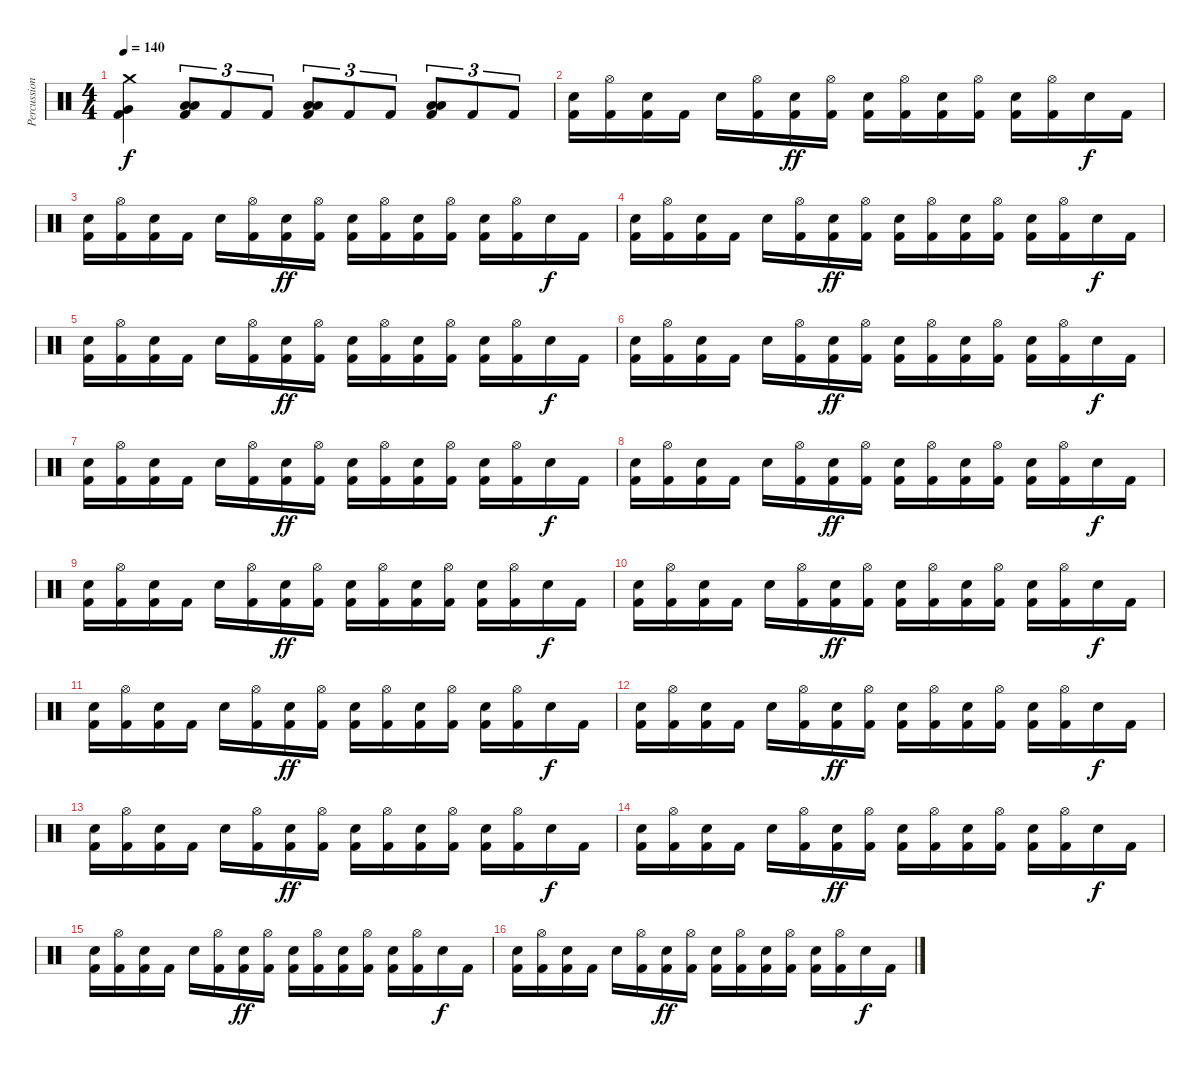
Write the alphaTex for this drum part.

\track ("Percussion" "Percussion") {instrument percussion}
\staff {score}
\articulation defaults
\ts (4 4)
\tempo 140
\clef neutral
\ks c
("Crash medium (hit)" "Very Low Tom (hit)" "Kick (hit) 2").4{dy f} ("Low Tom (hit)" "Low Tom (hit)" "Kick (hit) 2").8{tu (3 2)} "Kick (hit) 2".8{tu (3 2)} "Kick (hit) 2".8{tu (3 2)} ("Low Tom (hit)" "Low Tom (hit)" "Kick (hit) 2").8{tu (3 2)} "Kick (hit) 2".8{tu (3 2)} "Kick (hit) 2".8{tu (3 2)} ("Low Tom (hit)" "Low Tom (hit)" "Kick (hit) 2").8{tu (3 2)} "Kick (hit) 2".8{tu (3 2)} "Kick (hit) 2".8{tu (3 2)} |
("Electric Snare (hit)" "Kick (hit) 2").16 ("Hi-Hat (open)" "Kick (hit) 2").16 ("Electric Snare (hit)" "Kick (hit) 2").16 "Kick (hit) 2".16 "Electric Snare (hit)".16 ("Hi-Hat (open)" "Kick (hit) 2").16 ("Electric Snare (hit)" "Kick (hit) 2").16{dy ff} ("Hi-Hat (open)" "Kick (hit) 2").16 ("Electric Snare (hit)" "Kick (hit) 2").16 ("Hi-Hat (open)" "Kick (hit) 2").16 ("Electric Snare (hit)" "Kick (hit) 2").16 ("Hi-Hat (open)" "Kick (hit) 2").16 ("Electric Snare (hit)" "Kick (hit) 2").16 ("Hi-Hat (open)" "Kick (hit) 2").16 "Electric Snare (hit)".16{dy f} "Kick (hit) 2".16 |
("Electric Snare (hit)" "Kick (hit) 2").16 ("Hi-Hat (open)" "Kick (hit) 2").16 ("Electric Snare (hit)" "Kick (hit) 2").16 "Kick (hit) 2".16 "Electric Snare (hit)".16 ("Hi-Hat (open)" "Kick (hit) 2").16 ("Electric Snare (hit)" "Kick (hit) 2").16{dy ff} ("Hi-Hat (open)" "Kick (hit) 2").16 ("Electric Snare (hit)" "Kick (hit) 2").16 ("Hi-Hat (open)" "Kick (hit) 2").16 ("Electric Snare (hit)" "Kick (hit) 2").16 ("Hi-Hat (open)" "Kick (hit) 2").16 ("Electric Snare (hit)" "Kick (hit) 2").16 ("Hi-Hat (open)" "Kick (hit) 2").16 "Electric Snare (hit)".16{dy f} "Kick (hit) 2".16 |
("Electric Snare (hit)" "Kick (hit) 2").16 ("Hi-Hat (open)" "Kick (hit) 2").16 ("Electric Snare (hit)" "Kick (hit) 2").16 "Kick (hit) 2".16 "Electric Snare (hit)".16 ("Hi-Hat (open)" "Kick (hit) 2").16 ("Electric Snare (hit)" "Kick (hit) 2").16{dy ff} ("Hi-Hat (open)" "Kick (hit) 2").16 ("Electric Snare (hit)" "Kick (hit) 2").16 ("Hi-Hat (open)" "Kick (hit) 2").16 ("Electric Snare (hit)" "Kick (hit) 2").16 ("Hi-Hat (open)" "Kick (hit) 2").16 ("Electric Snare (hit)" "Kick (hit) 2").16 ("Hi-Hat (open)" "Kick (hit) 2").16 "Electric Snare (hit)".16{dy f} "Kick (hit) 2".16 |
("Electric Snare (hit)" "Kick (hit) 2").16 ("Hi-Hat (open)" "Kick (hit) 2").16 ("Electric Snare (hit)" "Kick (hit) 2").16 "Kick (hit) 2".16 "Electric Snare (hit)".16 ("Hi-Hat (open)" "Kick (hit) 2").16 ("Electric Snare (hit)" "Kick (hit) 2").16{dy ff} ("Hi-Hat (open)" "Kick (hit) 2").16 ("Electric Snare (hit)" "Kick (hit) 2").16 ("Hi-Hat (open)" "Kick (hit) 2").16 ("Electric Snare (hit)" "Kick (hit) 2").16 ("Hi-Hat (open)" "Kick (hit) 2").16 ("Electric Snare (hit)" "Kick (hit) 2").16 ("Hi-Hat (open)" "Kick (hit) 2").16 "Electric Snare (hit)".16{dy f} "Kick (hit) 2".16 |
("Electric Snare (hit)" "Kick (hit) 2").16 ("Hi-Hat (open)" "Kick (hit) 2").16 ("Electric Snare (hit)" "Kick (hit) 2").16 "Kick (hit) 2".16 "Electric Snare (hit)".16 ("Hi-Hat (open)" "Kick (hit) 2").16 ("Electric Snare (hit)" "Kick (hit) 2").16{dy ff} ("Hi-Hat (open)" "Kick (hit) 2").16 ("Electric Snare (hit)" "Kick (hit) 2").16 ("Hi-Hat (open)" "Kick (hit) 2").16 ("Electric Snare (hit)" "Kick (hit) 2").16 ("Hi-Hat (open)" "Kick (hit) 2").16 ("Electric Snare (hit)" "Kick (hit) 2").16 ("Hi-Hat (open)" "Kick (hit) 2").16 "Electric Snare (hit)".16{dy f} "Kick (hit) 2".16 |
("Electric Snare (hit)" "Kick (hit) 2").16 ("Hi-Hat (open)" "Kick (hit) 2").16 ("Electric Snare (hit)" "Kick (hit) 2").16 "Kick (hit) 2".16 "Electric Snare (hit)".16 ("Hi-Hat (open)" "Kick (hit) 2").16 ("Electric Snare (hit)" "Kick (hit) 2").16{dy ff} ("Hi-Hat (open)" "Kick (hit) 2").16 ("Electric Snare (hit)" "Kick (hit) 2").16 ("Hi-Hat (open)" "Kick (hit) 2").16 ("Electric Snare (hit)" "Kick (hit) 2").16 ("Hi-Hat (open)" "Kick (hit) 2").16 ("Electric Snare (hit)" "Kick (hit) 2").16 ("Hi-Hat (open)" "Kick (hit) 2").16 "Electric Snare (hit)".16{dy f} "Kick (hit) 2".16 |
("Electric Snare (hit)" "Kick (hit) 2").16 ("Hi-Hat (open)" "Kick (hit) 2").16 ("Electric Snare (hit)" "Kick (hit) 2").16 "Kick (hit) 2".16 "Electric Snare (hit)".16 ("Hi-Hat (open)" "Kick (hit) 2").16 ("Electric Snare (hit)" "Kick (hit) 2").16{dy ff} ("Hi-Hat (open)" "Kick (hit) 2").16 ("Electric Snare (hit)" "Kick (hit) 2").16 ("Hi-Hat (open)" "Kick (hit) 2").16 ("Electric Snare (hit)" "Kick (hit) 2").16 ("Hi-Hat (open)" "Kick (hit) 2").16 ("Electric Snare (hit)" "Kick (hit) 2").16 ("Hi-Hat (open)" "Kick (hit) 2").16 "Electric Snare (hit)".16{dy f} "Kick (hit) 2".16 |
("Electric Snare (hit)" "Kick (hit) 2").16 ("Hi-Hat (open)" "Kick (hit) 2").16 ("Electric Snare (hit)" "Kick (hit) 2").16 "Kick (hit) 2".16 "Electric Snare (hit)".16 ("Hi-Hat (open)" "Kick (hit) 2").16 ("Electric Snare (hit)" "Kick (hit) 2").16{dy ff} ("Hi-Hat (open)" "Kick (hit) 2").16 ("Electric Snare (hit)" "Kick (hit) 2").16 ("Hi-Hat (open)" "Kick (hit) 2").16 ("Electric Snare (hit)" "Kick (hit) 2").16 ("Hi-Hat (open)" "Kick (hit) 2").16 ("Electric Snare (hit)" "Kick (hit) 2").16 ("Hi-Hat (open)" "Kick (hit) 2").16 "Electric Snare (hit)".16{dy f} "Kick (hit) 2".16 |
("Electric Snare (hit)" "Kick (hit) 2").16 ("Hi-Hat (open)" "Kick (hit) 2").16 ("Electric Snare (hit)" "Kick (hit) 2").16 "Kick (hit) 2".16 "Electric Snare (hit)".16 ("Hi-Hat (open)" "Kick (hit) 2").16 ("Electric Snare (hit)" "Kick (hit) 2").16{dy ff} ("Hi-Hat (open)" "Kick (hit) 2").16 ("Electric Snare (hit)" "Kick (hit) 2").16 ("Hi-Hat (open)" "Kick (hit) 2").16 ("Electric Snare (hit)" "Kick (hit) 2").16 ("Hi-Hat (open)" "Kick (hit) 2").16 ("Electric Snare (hit)" "Kick (hit) 2").16 ("Hi-Hat (open)" "Kick (hit) 2").16 "Electric Snare (hit)".16{dy f} "Kick (hit) 2".16 |
("Electric Snare (hit)" "Kick (hit) 2").16 ("Hi-Hat (open)" "Kick (hit) 2").16 ("Electric Snare (hit)" "Kick (hit) 2").16 "Kick (hit) 2".16 "Electric Snare (hit)".16 ("Hi-Hat (open)" "Kick (hit) 2").16 ("Electric Snare (hit)" "Kick (hit) 2").16{dy ff} ("Hi-Hat (open)" "Kick (hit) 2").16 ("Electric Snare (hit)" "Kick (hit) 2").16 ("Hi-Hat (open)" "Kick (hit) 2").16 ("Electric Snare (hit)" "Kick (hit) 2").16 ("Hi-Hat (open)" "Kick (hit) 2").16 ("Electric Snare (hit)" "Kick (hit) 2").16 ("Hi-Hat (open)" "Kick (hit) 2").16 "Electric Snare (hit)".16{dy f} "Kick (hit) 2".16 |
("Electric Snare (hit)" "Kick (hit) 2").16 ("Hi-Hat (open)" "Kick (hit) 2").16 ("Electric Snare (hit)" "Kick (hit) 2").16 "Kick (hit) 2".16 "Electric Snare (hit)".16 ("Hi-Hat (open)" "Kick (hit) 2").16 ("Electric Snare (hit)" "Kick (hit) 2").16{dy ff} ("Hi-Hat (open)" "Kick (hit) 2").16 ("Electric Snare (hit)" "Kick (hit) 2").16 ("Hi-Hat (open)" "Kick (hit) 2").16 ("Electric Snare (hit)" "Kick (hit) 2").16 ("Hi-Hat (open)" "Kick (hit) 2").16 ("Electric Snare (hit)" "Kick (hit) 2").16 ("Hi-Hat (open)" "Kick (hit) 2").16 "Electric Snare (hit)".16{dy f} "Kick (hit) 2".16 |
("Electric Snare (hit)" "Kick (hit) 2").16 ("Hi-Hat (open)" "Kick (hit) 2").16 ("Electric Snare (hit)" "Kick (hit) 2").16 "Kick (hit) 2".16 "Electric Snare (hit)".16 ("Hi-Hat (open)" "Kick (hit) 2").16 ("Electric Snare (hit)" "Kick (hit) 2").16{dy ff} ("Hi-Hat (open)" "Kick (hit) 2").16 ("Electric Snare (hit)" "Kick (hit) 2").16 ("Hi-Hat (open)" "Kick (hit) 2").16 ("Electric Snare (hit)" "Kick (hit) 2").16 ("Hi-Hat (open)" "Kick (hit) 2").16 ("Electric Snare (hit)" "Kick (hit) 2").16 ("Hi-Hat (open)" "Kick (hit) 2").16 "Electric Snare (hit)".16{dy f} "Kick (hit) 2".16 |
("Electric Snare (hit)" "Kick (hit) 2").16 ("Hi-Hat (open)" "Kick (hit) 2").16 ("Electric Snare (hit)" "Kick (hit) 2").16 "Kick (hit) 2".16 "Electric Snare (hit)".16 ("Hi-Hat (open)" "Kick (hit) 2").16 ("Electric Snare (hit)" "Kick (hit) 2").16{dy ff} ("Hi-Hat (open)" "Kick (hit) 2").16 ("Electric Snare (hit)" "Kick (hit) 2").16 ("Hi-Hat (open)" "Kick (hit) 2").16 ("Electric Snare (hit)" "Kick (hit) 2").16 ("Hi-Hat (open)" "Kick (hit) 2").16 ("Electric Snare (hit)" "Kick (hit) 2").16 ("Hi-Hat (open)" "Kick (hit) 2").16 "Electric Snare (hit)".16{dy f} "Kick (hit) 2".16 |
("Electric Snare (hit)" "Kick (hit) 2").16 ("Hi-Hat (open)" "Kick (hit) 2").16 ("Electric Snare (hit)" "Kick (hit) 2").16 "Kick (hit) 2".16 "Electric Snare (hit)".16 ("Hi-Hat (open)" "Kick (hit) 2").16 ("Electric Snare (hit)" "Kick (hit) 2").16{dy ff} ("Hi-Hat (open)" "Kick (hit) 2").16 ("Electric Snare (hit)" "Kick (hit) 2").16 ("Hi-Hat (open)" "Kick (hit) 2").16 ("Electric Snare (hit)" "Kick (hit) 2").16 ("Hi-Hat (open)" "Kick (hit) 2").16 ("Electric Snare (hit)" "Kick (hit) 2").16 ("Hi-Hat (open)" "Kick (hit) 2").16 "Electric Snare (hit)".16{dy f} "Kick (hit) 2".16 |
("Electric Snare (hit)" "Kick (hit) 2").16 ("Hi-Hat (open)" "Kick (hit) 2").16 ("Electric Snare (hit)" "Kick (hit) 2").16 "Kick (hit) 2".16 "Electric Snare (hit)".16 ("Hi-Hat (open)" "Kick (hit) 2").16 ("Electric Snare (hit)" "Kick (hit) 2").16{dy ff} ("Hi-Hat (open)" "Kick (hit) 2").16 ("Electric Snare (hit)" "Kick (hit) 2").16 ("Hi-Hat (open)" "Kick (hit) 2").16 ("Electric Snare (hit)" "Kick (hit) 2").16 ("Hi-Hat (open)" "Kick (hit) 2").16 ("Electric Snare (hit)" "Kick (hit) 2").16 ("Hi-Hat (open)" "Kick (hit) 2").16 "Electric Snare (hit)".16{dy f} "Kick (hit) 2".16
